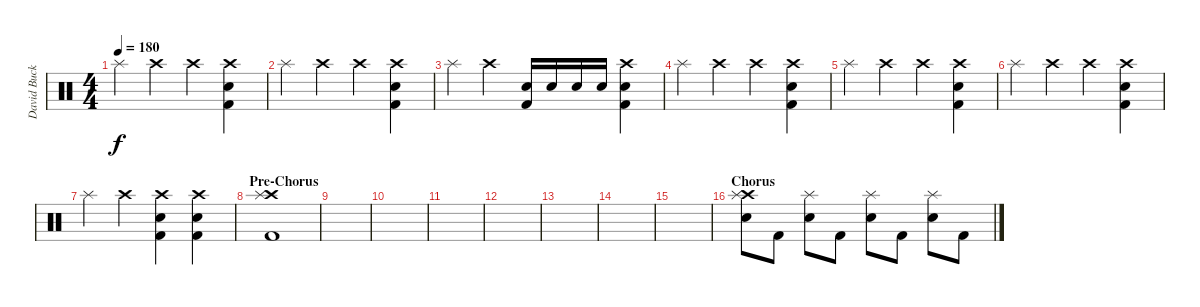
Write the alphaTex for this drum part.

\track ("David Buckner" "David Buck") {instrument percussion}
\staff {score}
\articulation defaults
\ts (4 4)
\tempo 180
\clef neutral
\ks c "Splash (hit)".4{dy f} "Crash high (hit)".4 "Crash high (hit)".4
("Crash high (hit)" "Snare (hit) 2" "Kick (hit) 2").4 |
"Splash (hit)".4 "Crash high (hit)".4 "Crash high (hit)".4 ("Crash high (hit)" "Snare (hit) 2" "Kick (hit) 2").4 |
"Splash (hit)".4 "Crash high (hit)".4 ("Snare (hit) 2" "Kick (hit) 2").16 "Snare (hit) 2".16 "Snare (hit) 2".16 "Snare (hit) 2".16 ("Crash high (hit)" "Snare (hit) 2" "Kick (hit) 2").4 |
"Splash (hit)".4 "Crash high (hit)".4 "Crash high (hit)".4 ("Crash high (hit)" "Snare (hit) 2" "Kick (hit) 2").4 |
"Splash (hit)".4 "Crash high (hit)".4 "Crash high (hit)".4 ("Crash high (hit)" "Snare (hit) 2" "Kick (hit) 2").4 |
"Splash (hit)".4 "Crash high (hit)".4 "Crash high (hit)".4 ("Crash high (hit)" "Snare (hit) 2" "Kick (hit) 2").4 |
"Splash (hit)".4 "Crash high (hit)".4 ("Crash high (hit)" "Snare (hit) 2" "Kick (hit) 2").4 ("Crash high (hit)" "Snare (hit) 2" "Kick (hit) 2").4 |
\section ("" "Pre-Chorus")
("Crash high (hit)" "Splash (hit)" "Kick (hit) 2").1 |
|
|
|
|
|
|
|
\section ("" "Chorus")
("Crash high (hit)" "Splash (hit)" "Snare (hit) 2").8 "Kick (hit) 2".8 ("Splash (hit)" "Snare (hit) 2").8 "Kick (hit) 2".8 ("Splash (hit)" "Snare (hit) 2").8 "Kick (hit) 2".8 ("Splash (hit)" "Snare (hit) 2").8 "Kick (hit) 2".8
